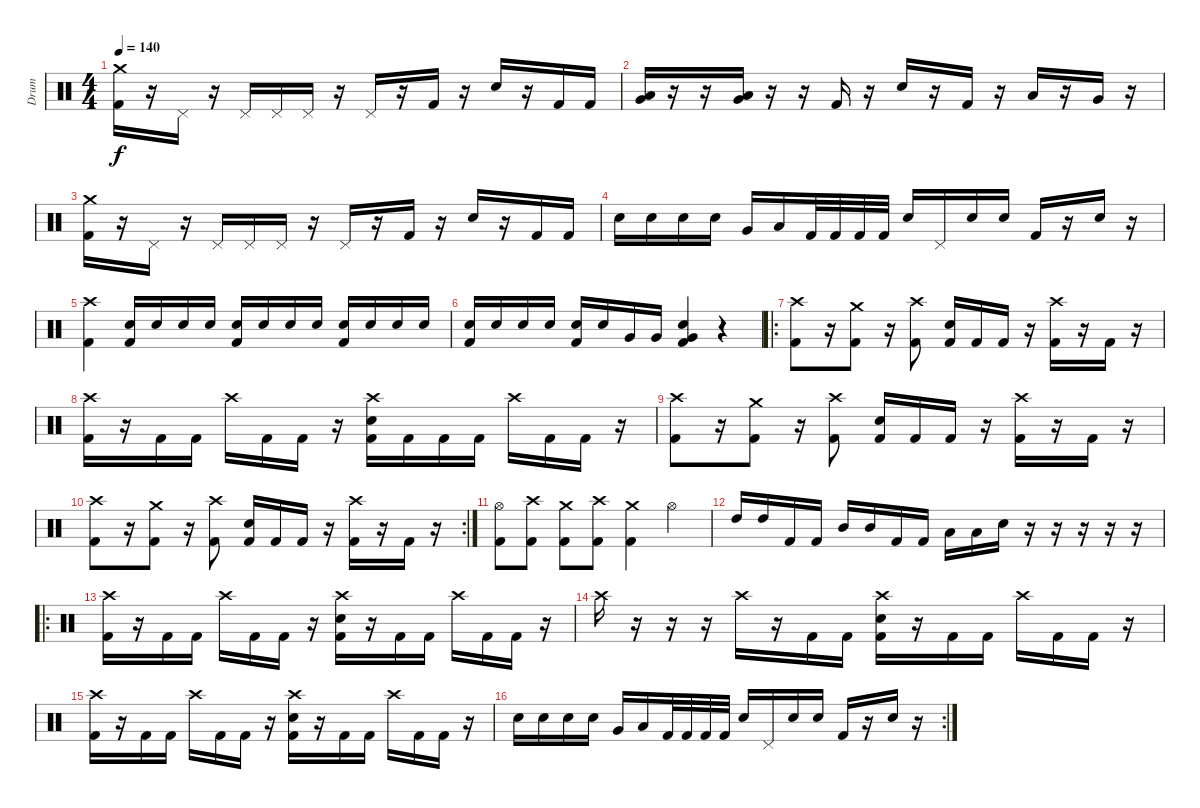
\track ("Drum" "Drum") {instrument percussion}
\staff {score}
\articulation defaults
\ts (4 4)
\tempo 140
\clef neutral
\ks c
("Crash medium (hit)" "Kick (hit) 2").16{dy f} r.16 "Pedal Hi-Hat (hit)".16 r.16 "Pedal Hi-Hat (hit)".16 "Pedal Hi-Hat (hit)".16 "Pedal Hi-Hat (hit)".16 r.16 "Pedal Hi-Hat (hit)".16 r.16 "Kick (hit) 2".16 r.16 "Electric Snare (hit)".16 r.16 "Kick (hit) 2".16 "Kick (hit) 2".16 |
("Low Tom (hit)" "Very Low Tom (hit)").16 r.16 r.16 ("Very Low Tom (hit)" "Low Floor Tom (hit)").16 r.16 r.16 "Kick (hit) 2".16 r.16 "Electric Snare (hit)".16 r.16 "Kick (hit) 2".16 r.16 "Low Tom (hit)".16 r.16 "Very Low Tom (hit)".16 r.16 |
("Crash medium (hit)" "Kick (hit) 2").16 r.16 "Pedal Hi-Hat (hit)".16 r.16 "Pedal Hi-Hat (hit)".16 "Pedal Hi-Hat (hit)".16 "Pedal Hi-Hat (hit)".16 r.16 "Pedal Hi-Hat (hit)".16 r.16 "Kick (hit) 2".16 r.16 "Electric Snare (hit)".16 r.16 "Kick (hit) 2".16 "Kick (hit) 2".16 |
"Electric Snare (hit)".16 "Electric Snare (hit)".16 "Electric Snare (hit)".16 "Electric Snare (hit)".16 "Very Low Tom (hit)".16 "Low Floor Tom (hit)".16 "Kick (hit) 2".32 "Kick (hit) 2".32 "Kick (hit) 2".32 "Kick (hit) 2".32 "Electric Snare (hit)".16 "Pedal Hi-Hat (hit)".16 "Electric Snare (hit)".16 "Electric Snare (hit)".16 "Kick (hit) 2".16 r.16 "Electric Snare (hit)".16 r.16 |
("Crash high (hit)" "Kick (hit) 2").4 ("Electric Snare (hit)" "Kick (hit) 2").16 "Electric Snare (hit)".16 "Electric Snare (hit)".16 "Electric Snare (hit)".16 ("Electric Snare (hit)" "Kick (hit) 2").16 "Electric Snare (hit)".16 "Electric Snare (hit)".16 "Electric Snare (hit)".16 ("Electric Snare (hit)" "Kick (hit) 2").16 "Electric Snare (hit)".16 "Electric Snare (hit)".16 "Electric Snare (hit)".16 |
("Electric Snare (hit)" "Kick (hit) 2").16 "Electric Snare (hit)".16 "Electric Snare (hit)".16 "Electric Snare (hit)".16 ("Electric Snare (hit)" "Kick (hit) 2").16 "Electric Snare (hit)".16 "Very Low Tom (hit)".16 "Very Low Tom (hit)".16 ("Very Low Tom (hit)" "Electric Snare (hit)" "Kick (hit) 2").4 r.4 |
\ro
("Crash high (hit)" "Kick (hit) 2").8 r.16 ("Crash medium (hit)" "Kick (hit) 2").8 r.16 ("Crash high (hit)" "Kick (hit) 2").8 ("Electric Snare (hit)" "Kick (hit) 2").16 "Kick (hit) 2".16 "Kick (hit) 2".16 r.16 ("Crash high (hit)" "Kick (hit) 2").16 r.16 "Kick (hit) 2".16 r.16 |
("Crash high (hit)" "Kick (hit) 2").16 r.16 "Kick (hit) 2".16 "Kick (hit) 2".16 "Crash high (hit)".16 "Kick (hit) 2".16 "Kick (hit) 2".16 r.16 ("Crash high (hit)" "Electric Snare (hit)" "Kick (hit) 2").16 "Kick (hit) 2".16 "Kick (hit) 2".16 "Kick (hit) 2".16 "Crash high (hit)".16 "Kick (hit) 2".16 "Kick (hit) 2".16 r.16 |
("Crash high (hit)" "Kick (hit) 2").8 r.16 ("Crash medium (hit)" "Kick (hit) 2").8 r.16 ("Crash high (hit)" "Kick (hit) 2").8 ("Electric Snare (hit)" "Kick (hit) 2").16 "Kick (hit) 2".16 "Kick (hit) 2".16 r.16 ("Crash high (hit)" "Kick (hit) 2").16 r.16 "Kick (hit) 2".16 r.16 |
\rc 2
("Crash high (hit)" "Kick (hit) 2").8 r.16 ("Crash medium (hit)" "Kick (hit) 2").8 r.16 ("Crash high (hit)" "Kick (hit) 2").8 ("Electric Snare (hit)" "Kick (hit) 2").16 "Kick (hit) 2".16 "Kick (hit) 2".16 r.16 ("Crash high (hit)" "Kick (hit) 2").16 r.16 "Kick (hit) 2".16 r.16 |
("Hi-Hat (open)" "Kick (hit) 2").8 ("Crash high (hit)" "Kick (hit) 2").8 ("Crash medium (hit)" "Kick (hit) 2").8 ("Crash high (hit)" "Kick (hit) 2").8 ("Crash medium (hit)" "Kick (hit) 2").4 "Hi-Hat (open)".4 |
"High Tom (hit)".16 "High Tom (hit)".16 "Kick (hit) 2".16 "Kick (hit) 2".16 "Mid Tom (hit)".16 "Mid Tom (hit)".16 "Kick (hit) 2".16 "Kick (hit) 2".16 "Low Tom (hit)".16 "Low Tom (hit)".16 "Electric Snare (hit)".16 r.16 r.16 r.16 r.16 r.16 |
\ro
("Crash high (hit)" "Kick (hit) 2").16 r.16 "Kick (hit) 2".16 "Kick (hit) 2".16 "Crash high (hit)".16 "Kick (hit) 2".16 "Kick (hit) 2".16 r.16 ("Crash high (hit)" "Electric Snare (hit)" "Kick (hit) 2").16 r.16 "Kick (hit) 2".16 "Kick (hit) 2".16 "Crash high (hit)".16 "Kick (hit) 2".16 "Kick (hit) 2".16 r.16 |
"Crash high (hit)".16 r.16 r.16 r.16 "Crash high (hit)".16 r.16 "Kick (hit) 2".16 "Kick (hit) 2".16 ("Crash high (hit)" "Electric Snare (hit)" "Kick (hit) 2").16 r.16 "Kick (hit) 2".16 "Kick (hit) 2".16 "Crash high (hit)".16 "Kick (hit) 2".16 "Kick (hit) 2".16 r.16 |
("Crash high (hit)" "Kick (hit) 2").16 r.16 "Kick (hit) 2".16 "Kick (hit) 2".16 "Crash high (hit)".16 "Kick (hit) 2".16 "Kick (hit) 2".16 r.16 ("Crash high (hit)" "Electric Snare (hit)" "Kick (hit) 2").16 r.16 "Kick (hit) 2".16 "Kick (hit) 2".16 "Crash high (hit)".16 "Kick (hit) 2".16 "Kick (hit) 2".16 r.16 |
\rc 2 "Electric Snare (hit)".16 "Electric Snare (hit)".16 "Electric Snare (hit)".16 "Electric Snare (hit)".16 "Very Low Tom (hit)".16 "Low Floor Tom (hit)".16 "Kick (hit) 2".32 "Kick (hit) 2".32 "Kick (hit) 2".32 "Kick (hit) 2".32 "Electric Snare (hit)".16 "Pedal Hi-Hat (hit)".16 "Electric Snare (hit)".16 "Electric Snare (hit)".16 "Kick (hit) 2".16
r.16 "Electric Snare (hit)".16 r.16
